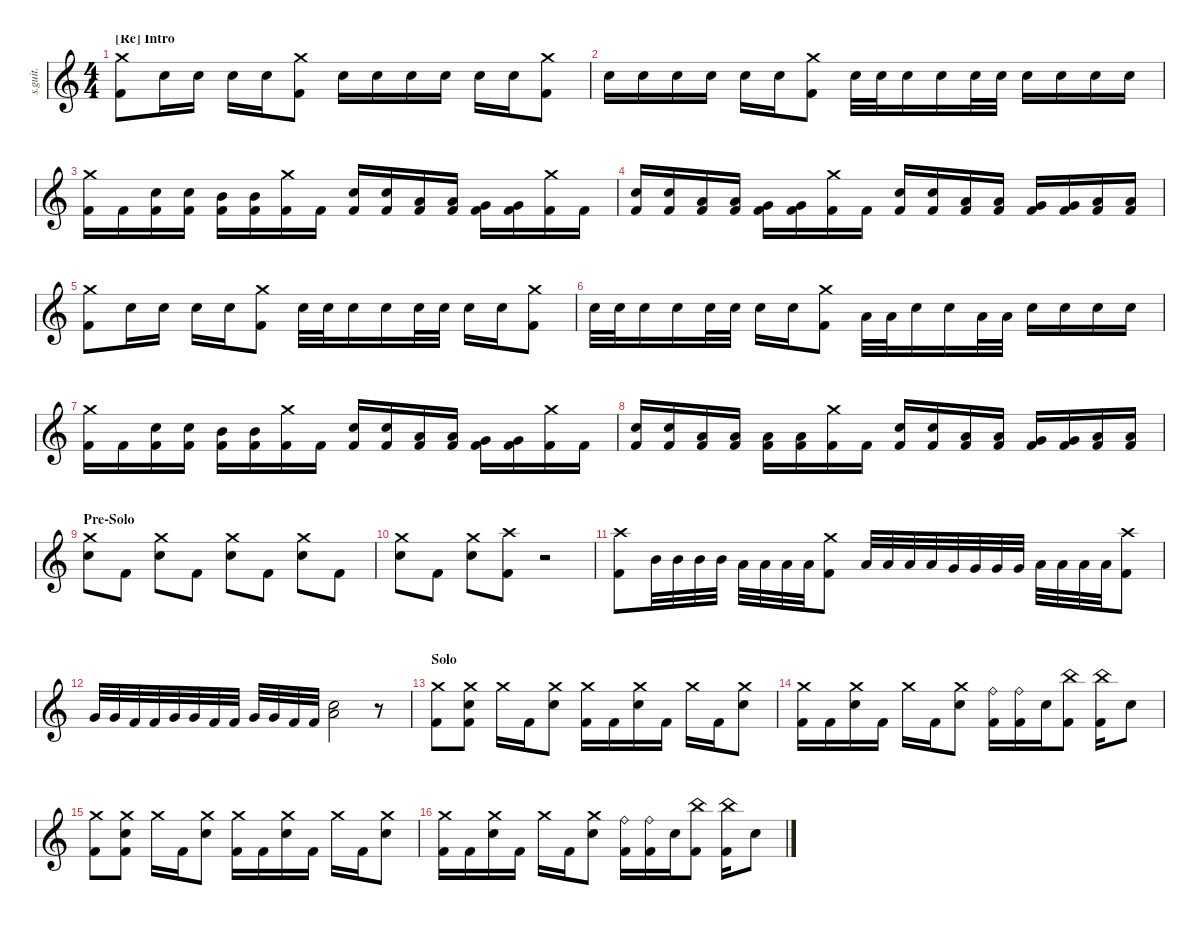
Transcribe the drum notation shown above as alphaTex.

\defaultSystemsLayout 4
\hideDynamics
\bracketExtendMode nobrackets
\track ("The Rev" "s.guit.") {instrument percussion}
\staff {score}
\articulation defaults
\ts (4 4)
\section ("Re" "Intro")
\tempo (125 hide)
\clef g2
\ks c
("Crash medium (hit)" "Kick (hit) 2").8{lyrics (0 "") lyrics (1 "") lyrics (2 "") lyrics (3 "") lyrics (4 "") dy f} "Electric Snare (hit)".16{lyrics (0 "") lyrics (1 "") lyrics (2 "") lyrics (3 "") lyrics (4 "")} "Electric Snare (hit)".16{lyrics (0 "") lyrics (1 "") lyrics (2 "") lyrics (3 "") lyrics (4 "")} "Electric Snare (hit)".16{lyrics (0 "") lyrics (1 "") lyrics (2 "") lyrics (3 "") lyrics (4 "")} "Electric Snare (hit)".16{lyrics (0 "") lyrics (1 "") lyrics (2 "") lyrics (3 "") lyrics (4 "")} ("Crash medium (hit)" "Kick (hit) 2").8{lyrics (0 "") lyrics (1 "") lyrics (2 "") lyrics (3 "") lyrics (4 "")} "Electric Snare (hit)".16{lyrics (0 "") lyrics (1 "") lyrics (2 "") lyrics (3 "") lyrics (4 "")} "Electric Snare (hit)".16{lyrics (0 "") lyrics (1 "") lyrics (2 "") lyrics (3 "") lyrics (4 "")} "Electric Snare (hit)".16{lyrics (0 "") lyrics (1 "") lyrics (2 "") lyrics (3 "") lyrics (4 "")} "Electric Snare (hit)".16{lyrics (0 "") lyrics (1 "") lyrics (2 "") lyrics (3 "") lyrics (4 "")} "Electric Snare (hit)".16{lyrics (0 "") lyrics (1 "") lyrics (2 "") lyrics (3 "") lyrics (4 "")} "Electric Snare (hit)".16{lyrics (0 "") lyrics (1 "") lyrics (2 "") lyrics (3 "") lyrics (4 "")} ("Crash medium (hit)" "Kick (hit) 2").8{lyrics (0 "") lyrics (1 "") lyrics (2 "") lyrics (3 "") lyrics (4 "")} |
"Electric Snare (hit)".16{lyrics (0 "") lyrics (1 "") lyrics (2 "") lyrics (3 "") lyrics (4 "")} "Electric Snare (hit)".16{lyrics (0 "") lyrics (1 "") lyrics (2 "") lyrics (3 "") lyrics (4 "")} "Electric Snare (hit)".16{lyrics (0 "") lyrics (1 "") lyrics (2 "") lyrics (3 "") lyrics (4 "")} "Electric Snare (hit)".16{lyrics (0 "") lyrics (1 "") lyrics (2 "") lyrics (3 "") lyrics (4 "")} "Electric Snare (hit)".16{lyrics (0 "") lyrics (1 "") lyrics (2 "") lyrics (3 "") lyrics (4 "")} "Electric Snare (hit)".16{lyrics (0 "") lyrics (1 "") lyrics (2 "") lyrics (3 "") lyrics (4 "")} ("Crash medium (hit)" "Kick (hit) 2").8{lyrics (0 "") lyrics (1 "") lyrics (2 "") lyrics (3 "") lyrics (4 "")} "Electric Snare (hit)".32{lyrics (0 "") lyrics (1 "") lyrics (2 "") lyrics (3 "") lyrics (4 "")} "Electric Snare (hit)".32{lyrics (0 "") lyrics (1 "") lyrics (2 "") lyrics (3 "") lyrics (4 "")} "Electric Snare (hit)".16{lyrics (0 "") lyrics (1 "") lyrics (2 "") lyrics (3 "") lyrics (4 "")} "Electric Snare (hit)".16{lyrics (0 "") lyrics (1 "") lyrics (2 "") lyrics (3 "") lyrics (4 "")} "Electric Snare (hit)".32{lyrics (0 "") lyrics (1 "") lyrics (2 "") lyrics (3 "") lyrics (4 "")} "Electric Snare (hit)".32{lyrics (0 "") lyrics (1 "") lyrics (2 "") lyrics (3 "") lyrics (4 "")} "Electric Snare (hit)".16{lyrics (0 "") lyrics (1 "") lyrics (2 "") lyrics (3 "") lyrics (4 "")} "Electric Snare (hit)".16{lyrics (0 "") lyrics (1 "") lyrics (2 "") lyrics (3 "") lyrics (4 "")} "Electric Snare (hit)".16{lyrics (0 "") lyrics (1 "") lyrics (2 "") lyrics (3 "") lyrics (4 "")} "Electric Snare (hit)".16{lyrics (0 "") lyrics (1 "") lyrics (2 "") lyrics (3 "") lyrics (4 "")} |
("Crash medium (hit)" "Kick (hit) 2").16{lyrics (0 "") lyrics (1 "") lyrics (2 "") lyrics (3 "") lyrics (4 "")} "Kick (hit) 2".16{lyrics (0 "") lyrics (1 "") lyrics (2 "") lyrics (3 "") lyrics (4 "") dy fff} ("Electric Snare (hit)" "Kick (hit) 2").16{lyrics (0 "") lyrics (1 "") lyrics (2 "") lyrics (3 "") lyrics (4 "")} ("Electric Snare (hit)" "Kick (hit) 2").16{lyrics (0 "") lyrics (1 "") lyrics (2 "") lyrics (3 "") lyrics (4 "")} ("Mid Tom (hit)" "Kick (hit) 2").16{lyrics (0 "") lyrics (1 "") lyrics (2 "") lyrics (3 "") lyrics (4 "")} ("Mid Tom (hit)" "Kick (hit) 2").16{lyrics (0 "") lyrics (1 "") lyrics (2 "") lyrics (3 "") lyrics (4 "")} ("Crash medium (hit)" "Kick (hit) 2").16{lyrics (0 "") lyrics (1 "") lyrics (2 "") lyrics (3 "") lyrics (4 "")} "Kick (hit) 2".16{lyrics (0 "") lyrics (1 "") lyrics (2 "") lyrics (3 "") lyrics (4 "")} ("Electric Snare (hit)" "Kick (hit) 2").16{lyrics (0 "") lyrics (1 "") lyrics (2 "") lyrics (3 "") lyrics (4 "")} ("Electric Snare (hit)" "Kick (hit) 2").16{lyrics (0 "") lyrics (1 "") lyrics (2 "") lyrics (3 "") lyrics (4 "")} ("Low Tom (hit)" "Kick (hit) 2").16{lyrics (0 "") lyrics (1 "") lyrics (2 "") lyrics (3 "") lyrics (4 "")} ("Low Tom (hit)" "Kick (hit) 2").16{lyrics (0 "") lyrics (1 "") lyrics (2 "") lyrics (3 "") lyrics (4 "")} ("Very Low Tom (hit)" "Kick (hit) 2").16{lyrics (0 "") lyrics (1 "") lyrics (2 "") lyrics (3 "") lyrics (4 "")} ("Very Low Tom (hit)" "Kick (hit) 2").16{lyrics (0 "") lyrics (1 "") lyrics (2 "") lyrics (3 "") lyrics (4 "")} ("Crash medium (hit)" "Kick (hit) 2").16{lyrics (0 "") lyrics (1 "") lyrics (2 "") lyrics (3 "") lyrics (4 "")} "Kick (hit) 2".16{lyrics (0 "") lyrics (1 "") lyrics (2 "") lyrics (3 "") lyrics (4 "")} |
("Electric Snare (hit)" "Kick (hit) 2").16{lyrics (0 "") lyrics (1 "") lyrics (2 "") lyrics (3 "") lyrics (4 "")} ("Electric Snare (hit)" "Kick (hit) 2").16{lyrics (0 "") lyrics (1 "") lyrics (2 "") lyrics (3 "") lyrics (4 "")} ("Low Tom (hit)" "Kick (hit) 2").16{lyrics (0 "") lyrics (1 "") lyrics (2 "") lyrics (3 "") lyrics (4 "")} ("Low Tom (hit)" "Kick (hit) 2").16{lyrics (0 "") lyrics (1 "") lyrics (2 "") lyrics (3 "") lyrics (4 "")} ("Very Low Tom (hit)" "Kick (hit) 2").16{lyrics (0 "") lyrics (1 "") lyrics (2 "") lyrics (3 "") lyrics (4 "")} ("Very Low Tom (hit)" "Kick (hit) 2").16{lyrics (0 "") lyrics (1 "") lyrics (2 "") lyrics (3 "") lyrics (4 "")} ("Crash medium (hit)" "Kick (hit) 2").16{lyrics (0 "") lyrics (1 "") lyrics (2 "") lyrics (3 "") lyrics (4 "")} "Kick (hit) 2".16{lyrics (0 "") lyrics (1 "") lyrics (2 "") lyrics (3 "") lyrics (4 "")} ("Electric Snare (hit)" "Kick (hit) 2").16{lyrics (0 "") lyrics (1 "") lyrics (2 "") lyrics (3 "") lyrics (4 "")} ("Electric Snare (hit)" "Kick (hit) 2").16{lyrics (0 "") lyrics (1 "") lyrics (2 "") lyrics (3 "") lyrics (4 "")} ("Low Tom (hit)" "Kick (hit) 2").16{lyrics (0 "") lyrics (1 "") lyrics (2 "") lyrics (3 "") lyrics (4 "")} ("Low Tom (hit)" "Kick (hit) 2").16{lyrics (0 "") lyrics (1 "") lyrics (2 "") lyrics (3 "") lyrics (4 "")} ("Very Low Tom (hit)" "Kick (hit) 2").16{lyrics (0 "") lyrics (1 "") lyrics (2 "") lyrics (3 "") lyrics (4 "")} ("Very Low Tom (hit)" "Kick (hit) 2").16{lyrics (0 "") lyrics (1 "") lyrics (2 "") lyrics (3 "") lyrics (4 "")} ("Low Floor Tom (hit)" "Kick (hit) 2").16{lyrics (0 "") lyrics (1 "") lyrics (2 "") lyrics (3 "") lyrics (4 "")} ("Low Floor Tom (hit)" "Kick (hit) 2").16{lyrics (0 "") lyrics (1 "") lyrics (2 "") lyrics (3 "") lyrics (4 "")} |
("Crash medium (hit)" "Kick (hit) 2").8{lyrics (0 "") lyrics (1 "") lyrics (2 "") lyrics (3 "") lyrics (4 "")} "Electric Snare (hit)".16{lyrics (0 "") lyrics (1 "") lyrics (2 "") lyrics (3 "") lyrics (4 "") dy f} "Electric Snare (hit)".16{lyrics (0 "") lyrics (1 "") lyrics (2 "") lyrics (3 "") lyrics (4 "")} "Electric Snare (hit)".16{lyrics (0 "") lyrics (1 "") lyrics (2 "") lyrics (3 "") lyrics (4 "")} "Electric Snare (hit)".16{lyrics (0 "") lyrics (1 "") lyrics (2 "") lyrics (3 "") lyrics (4 "")} ("Crash medium (hit)" "Kick (hit) 2").8{lyrics (0 "") lyrics (1 "") lyrics (2 "") lyrics (3 "") lyrics (4 "")} "Electric Snare (hit)".32{lyrics (0 "") lyrics (1 "") lyrics (2 "") lyrics (3 "") lyrics (4 "")} "Electric Snare (hit)".32{lyrics (0 "") lyrics (1 "") lyrics (2 "") lyrics (3 "") lyrics (4 "")} "Electric Snare (hit)".16{lyrics (0 "") lyrics (1 "") lyrics (2 "") lyrics (3 "") lyrics (4 "")} "Electric Snare (hit)".16{lyrics (0 "") lyrics (1 "") lyrics (2 "") lyrics (3 "") lyrics (4 "")} "Electric Snare (hit)".32{lyrics (0 "") lyrics (1 "") lyrics (2 "") lyrics (3 "") lyrics (4 "")} "Electric Snare (hit)".32{lyrics (0 "") lyrics (1 "") lyrics (2 "") lyrics (3 "") lyrics (4 "")} "Electric Snare (hit)".16{lyrics (0 "") lyrics (1 "") lyrics (2 "") lyrics (3 "") lyrics (4 "")} "Electric Snare (hit)".16{lyrics (0 "") lyrics (1 "") lyrics (2 "") lyrics (3 "") lyrics (4 "")} ("Crash medium (hit)" "Kick (hit) 2").8{lyrics (0 "") lyrics (1 "") lyrics (2 "") lyrics (3 "") lyrics (4 "")} |
"Electric Snare (hit)".32{lyrics (0 "") lyrics (1 "") lyrics (2 "") lyrics (3 "") lyrics (4 "")} "Electric Snare (hit)".32{lyrics (0 "") lyrics (1 "") lyrics (2 "") lyrics (3 "") lyrics (4 "")} "Electric Snare (hit)".16{lyrics (0 "") lyrics (1 "") lyrics (2 "") lyrics (3 "") lyrics (4 "")} "Electric Snare (hit)".16{lyrics (0 "") lyrics (1 "") lyrics (2 "") lyrics (3 "") lyrics (4 "")} "Electric Snare (hit)".32{lyrics (0 "") lyrics (1 "") lyrics (2 "") lyrics (3 "") lyrics (4 "")} "Electric Snare (hit)".32{lyrics (0 "") lyrics (1 "") lyrics (2 "") lyrics (3 "") lyrics (4 "")} "Electric Snare (hit)".16{lyrics (0 "") lyrics (1 "") lyrics (2 "") lyrics (3 "") lyrics (4 "")} "Electric Snare (hit)".16{lyrics (0 "") lyrics (1 "") lyrics (2 "") lyrics (3 "") lyrics (4 "")} ("Crash medium (hit)" "Kick (hit) 2").8{lyrics (0 "") lyrics (1 "") lyrics (2 "") lyrics (3 "") lyrics (4 "")} "Low Tom (hit)".32{lyrics (0 "") lyrics (1 "") lyrics (2 "") lyrics (3 "") lyrics (4 "") dy fff} "Low Tom (hit)".32{lyrics (0 "") lyrics (1 "") lyrics (2 "") lyrics (3 "") lyrics (4 "")} "Electric Snare (hit)".16{lyrics (0 "") lyrics (1 "") lyrics (2 "") lyrics (3 "") lyrics (4 "") dy ff} "Electric Snare (hit)".16{lyrics (0 "") lyrics (1 "") lyrics (2 "") lyrics (3 "") lyrics (4 "")} "Low Tom (hit)".32{lyrics (0 "") lyrics (1 "") lyrics (2 "") lyrics (3 "") lyrics (4 "") dy fff} "Low Tom (hit)".32{lyrics (0 "") lyrics (1 "") lyrics (2 "") lyrics (3 "") lyrics (4 "")} "Electric Snare (hit)".16{lyrics (0 "") lyrics (1 "") lyrics (2 "") lyrics (3 "") lyrics (4 "") dy ff} "Electric Snare (hit)".16{lyrics (0 "") lyrics (1 "") lyrics (2 "") lyrics (3 "") lyrics (4 "")} "Electric Snare (hit)".16{lyrics (0 "") lyrics (1 "") lyrics (2 "") lyrics (3 "") lyrics (4 "")} "Electric Snare (hit)".16{lyrics (0 "") lyrics (1 "") lyrics (2 "") lyrics (3 "") lyrics (4 "")} |
("Crash medium (hit)" "Kick (hit) 2").16{lyrics (0 "") lyrics (1 "") lyrics (2 "") lyrics (3 "") lyrics (4 "") dy f} "Kick (hit) 2".16{lyrics (0 "") lyrics (1 "") lyrics (2 "") lyrics (3 "") lyrics (4 "") dy fff} ("Electric Snare (hit)" "Kick (hit) 2").16{lyrics (0 "") lyrics (1 "") lyrics (2 "") lyrics (3 "") lyrics (4 "")} ("Electric Snare (hit)" "Kick (hit) 2").16{lyrics (0 "") lyrics (1 "") lyrics (2 "") lyrics (3 "") lyrics (4 "")} ("Mid Tom (hit)" "Kick (hit) 2").16{lyrics (0 "") lyrics (1 "") lyrics (2 "") lyrics (3 "") lyrics (4 "")} ("Mid Tom (hit)" "Kick (hit) 2").16{lyrics (0 "") lyrics (1 "") lyrics (2 "") lyrics (3 "") lyrics (4 "")} ("Crash medium (hit)" "Kick (hit) 2").16{lyrics (0 "") lyrics (1 "") lyrics (2 "") lyrics (3 "") lyrics (4 "")} "Kick (hit) 2".16{lyrics (0 "") lyrics (1 "") lyrics (2 "") lyrics (3 "") lyrics (4 "")} ("Electric Snare (hit)" "Kick (hit) 2").16{lyrics (0 "") lyrics (1 "") lyrics (2 "") lyrics (3 "") lyrics (4 "")} ("Electric Snare (hit)" "Kick (hit) 2").16{lyrics (0 "") lyrics (1 "") lyrics (2 "") lyrics (3 "") lyrics (4 "")} ("Low Tom (hit)" "Kick (hit) 2").16{lyrics (0 "") lyrics (1 "") lyrics (2 "") lyrics (3 "") lyrics (4 "")} ("Low Tom (hit)" "Kick (hit) 2").16{lyrics (0 "") lyrics (1 "") lyrics (2 "") lyrics (3 "") lyrics (4 "")} ("Very Low Tom (hit)" "Kick (hit) 2").16{lyrics (0 "") lyrics (1 "") lyrics (2 "") lyrics (3 "") lyrics (4 "")} ("Very Low Tom (hit)" "Kick (hit) 2").16{lyrics (0 "") lyrics (1 "") lyrics (2 "") lyrics (3 "") lyrics (4 "")} ("Crash medium (hit)" "Kick (hit) 2").16{lyrics (0 "") lyrics (1 "") lyrics (2 "") lyrics (3 "") lyrics (4 "")} "Kick (hit) 2".16{lyrics (0 "") lyrics (1 "") lyrics (2 "") lyrics (3 "") lyrics (4 "")} |
("Electric Snare (hit)" "Kick (hit) 2").16{lyrics (0 "") lyrics (1 "") lyrics (2 "") lyrics (3 "") lyrics (4 "")} ("Electric Snare (hit)" "Kick (hit) 2").16{lyrics (0 "") lyrics (1 "") lyrics (2 "") lyrics (3 "") lyrics (4 "")} ("Low Tom (hit)" "Kick (hit) 2").16{lyrics (0 "") lyrics (1 "") lyrics (2 "") lyrics (3 "") lyrics (4 "")} ("Low Tom (hit)" "Kick (hit) 2").16{lyrics (0 "") lyrics (1 "") lyrics (2 "") lyrics (3 "") lyrics (4 "")} ("Low Tom (hit)" "Kick (hit) 2").16{lyrics (0 "") lyrics (1 "") lyrics (2 "") lyrics (3 "") lyrics (4 "")} ("Low Tom (hit)" "Kick (hit) 2").16{lyrics (0 "") lyrics (1 "") lyrics (2 "") lyrics (3 "") lyrics (4 "")} ("Crash medium (hit)" "Kick (hit) 2").16{lyrics (0 "") lyrics (1 "") lyrics (2 "") lyrics (3 "") lyrics (4 "")} "Kick (hit) 2".16{lyrics (0 "") lyrics (1 "") lyrics (2 "") lyrics (3 "") lyrics (4 "")} ("Electric Snare (hit)" "Kick (hit) 2").16{lyrics (0 "") lyrics (1 "") lyrics (2 "") lyrics (3 "") lyrics (4 "")} ("Electric Snare (hit)" "Kick (hit) 2").16{lyrics (0 "") lyrics (1 "") lyrics (2 "") lyrics (3 "") lyrics (4 "")} ("Low Tom (hit)" "Kick (hit) 2").16{lyrics (0 "") lyrics (1 "") lyrics (2 "") lyrics (3 "") lyrics (4 "")} ("Low Tom (hit)" "Kick (hit) 2").16{lyrics (0 "") lyrics (1 "") lyrics (2 "") lyrics (3 "") lyrics (4 "")} ("Very Low Tom (hit)" "Kick (hit) 2").16{lyrics (0 "") lyrics (1 "") lyrics (2 "") lyrics (3 "") lyrics (4 "")} ("Very Low Tom (hit)" "Kick (hit) 2").16{lyrics (0 "") lyrics (1 "") lyrics (2 "") lyrics (3 "") lyrics (4 "")} ("Low Floor Tom (hit)" "Kick (hit) 2").16{lyrics (0 "") lyrics (1 "") lyrics (2 "") lyrics (3 "") lyrics (4 "")} ("Low Floor Tom (hit)" "Kick (hit) 2").16{lyrics (0 "") lyrics (1 "") lyrics (2 "") lyrics (3 "") lyrics (4 "")} |
\section ("" "Pre-Solo")
("Crash medium (hit)" "Electric Snare (hit)").8{lyrics (0 "") lyrics (1 "") lyrics (2 "") lyrics (3 "") lyrics (4 "") dy f} "Kick (hit) 2".8{lyrics (0 "") lyrics (1 "") lyrics (2 "") lyrics (3 "") lyrics (4 "") dy fff} ("Crash medium (hit)" "Electric Snare (hit)").8{lyrics (0 "") lyrics (1 "") lyrics (2 "") lyrics (3 "") lyrics (4 "") dy f} "Kick (hit) 2".8{lyrics (0 "") lyrics (1 "") lyrics (2 "") lyrics (3 "") lyrics (4 "") dy fff} ("Crash medium (hit)" "Electric Snare (hit)").8{lyrics (0 "") lyrics (1 "") lyrics (2 "") lyrics (3 "") lyrics (4 "") dy f} "Kick (hit) 2".8{lyrics (0 "") lyrics (1 "") lyrics (2 "") lyrics (3 "") lyrics (4 "") dy fff} ("Crash medium (hit)" "Electric Snare (hit)").8{lyrics (0 "") lyrics (1 "") lyrics (2 "") lyrics (3 "") lyrics (4 "") dy f} "Kick (hit) 2".8{lyrics (0 "") lyrics (1 "") lyrics (2 "") lyrics (3 "") lyrics (4 "") dy fff} |
("Crash medium (hit)" "Electric Snare (hit)").8{lyrics (0 "") lyrics (1 "") lyrics (2 "") lyrics (3 "") lyrics (4 "") dy f} "Kick (hit) 2".8{lyrics (0 "") lyrics (1 "") lyrics (2 "") lyrics (3 "") lyrics (4 "") dy fff} ("Crash medium (hit)" "Electric Snare (hit)").8{lyrics (0 "") lyrics (1 "") lyrics (2 "") lyrics (3 "") lyrics (4 "") dy f} ("Crash high (hit)" "Kick (hit) 2").8{lyrics (0 "") lyrics (1 "") lyrics (2 "") lyrics (3 "") lyrics (4 "")} r.2 |
("Crash high (hit)" "Kick (hit) 2").8{lyrics (0 "") lyrics (1 "") lyrics (2 "") lyrics (3 "") lyrics (4 "")} "Mid Tom (hit)".32{lyrics (0 "") lyrics (1 "") lyrics (2 "") lyrics (3 "") lyrics (4 "") dy fff} "Mid Tom (hit)".32{lyrics (0 "") lyrics (1 "") lyrics (2 "") lyrics (3 "") lyrics (4 "")} "Mid Tom (hit)".32{lyrics (0 "") lyrics (1 "") lyrics (2 "") lyrics (3 "") lyrics (4 "")} "Mid Tom (hit)".32{lyrics (0 "") lyrics (1 "") lyrics (2 "") lyrics (3 "") lyrics (4 "")} "Low Tom (hit)".32{lyrics (0 "") lyrics (1 "") lyrics (2 "") lyrics (3 "") lyrics (4 "")} "Low Tom (hit)".32{lyrics (0 "") lyrics (1 "") lyrics (2 "") lyrics (3 "") lyrics (4 "")} "Low Tom (hit)".32{lyrics (0 "") lyrics (1 "") lyrics (2 "") lyrics (3 "") lyrics (4 "")} "Low Tom (hit)".32{lyrics (0 "") lyrics (1 "") lyrics (2 "") lyrics (3 "") lyrics (4 "")} ("Crash medium (hit)" "Kick (hit) 2").8{lyrics (0 "") lyrics (1 "") lyrics (2 "") lyrics (3 "") lyrics (4 "")} "Low Tom (hit)".32{lyrics (0 "") lyrics (1 "") lyrics (2 "") lyrics (3 "") lyrics (4 "")} "Low Tom (hit)".32{lyrics (0 "") lyrics (1 "") lyrics (2 "") lyrics (3 "") lyrics (4 "")} "Low Tom (hit)".32{lyrics (0 "") lyrics (1 "") lyrics (2 "") lyrics (3 "") lyrics (4 "")} "Low Tom (hit)".32{lyrics (0 "") lyrics (1 "") lyrics (2 "") lyrics (3 "") lyrics (4 "")} "Very Low Tom (hit)".32{lyrics (0 "") lyrics (1 "") lyrics (2 "") lyrics (3 "") lyrics (4 "") dy ff} "Very Low Tom (hit)".32{lyrics (0 "") lyrics (1 "") lyrics (2 "") lyrics (3 "") lyrics (4 "")} "Very Low Tom (hit)".32{lyrics (0 "") lyrics (1 "") lyrics (2 "") lyrics (3 "") lyrics (4 "")} "Very Low Tom (hit)".32{lyrics (0 "") lyrics (1 "") lyrics (2 "") lyrics (3 "") lyrics (4 "")} "Low Floor Tom (hit)".32{lyrics (0 "") lyrics (1 "") lyrics (2 "") lyrics (3 "") lyrics (4 "") dy f} "Low Floor Tom (hit)".32{lyrics (0 "") lyrics (1 "") lyrics (2 "") lyrics (3 "") lyrics (4 "")} "Low Floor Tom (hit)".32{lyrics (0 "") lyrics (1 "") lyrics (2 "") lyrics (3 "") lyrics (4 "")} "Low Floor Tom (hit)".32{lyrics (0 "") lyrics (1 "") lyrics (2 "") lyrics (3 "") lyrics (4 "")} ("Crash high (hit)" "Kick (hit) 2").8{lyrics (0 "") lyrics (1 "") lyrics (2 "") lyrics (3 "") lyrics (4 "")} |
"Very Low Tom (hit)".32{lyrics (0 "") lyrics (1 "") lyrics (2 "") lyrics (3 "") lyrics (4 "") dy ff} "Very Low Tom (hit)".32{lyrics (0 "") lyrics (1 "") lyrics (2 "") lyrics (3 "") lyrics (4 "")} "Kick (hit) 2".32{lyrics (0 "") lyrics (1 "") lyrics (2 "") lyrics (3 "") lyrics (4 "") dy fff} "Kick (hit) 2".32{lyrics (0 "") lyrics (1 "") lyrics (2 "") lyrics (3 "") lyrics (4 "")} "Very Low Tom (hit)".32{lyrics (0 "") lyrics (1 "") lyrics (2 "") lyrics (3 "") lyrics (4 "") dy ff} "Very Low Tom (hit)".32{lyrics (0 "") lyrics (1 "") lyrics (2 "") lyrics (3 "") lyrics (4 "")} "Kick (hit) 2".32{lyrics (0 "") lyrics (1 "") lyrics (2 "") lyrics (3 "") lyrics (4 "") dy fff} "Kick (hit) 2".32{lyrics (0 "") lyrics (1 "") lyrics (2 "") lyrics (3 "") lyrics (4 "")} "Very Low Tom (hit)".32{lyrics (0 "") lyrics (1 "") lyrics (2 "") lyrics (3 "") lyrics (4 "") dy ff} "Very Low Tom (hit)".32{lyrics (0 "") lyrics (1 "") lyrics (2 "") lyrics (3 "") lyrics (4 "")} "Kick (hit) 2".32{lyrics (0 "") lyrics (1 "") lyrics (2 "") lyrics (3 "") lyrics (4 "") dy fff} "Kick (hit) 2".32{lyrics (0 "") lyrics (1 "") lyrics (2 "") lyrics (3 "") lyrics (4 "")} ("Electric Snare (hit)" "Low Floor Tom (hit)").2{lyrics (0 "") lyrics (1 "") lyrics (2 "") lyrics (3 "") lyrics (4 "") dy f} r.8 |
\section ("" "Solo")
("Crash medium (hit)" "Kick (hit) 2").8{lyrics (0 "") lyrics (1 "") lyrics (2 "") lyrics (3 "") lyrics (4 "") dy mp} ("Crash medium (hit)" "Electric Snare (hit)" "Kick (hit) 2").8{lyrics (0 "") lyrics (1 "") lyrics (2 "") lyrics (3 "") lyrics (4 "")} "Crash medium (hit)".16{lyrics (0 "") lyrics (1 "") lyrics (2 "") lyrics (3 "") lyrics (4 "")} "Kick (hit) 2".16{lyrics (0 "") lyrics (1 "") lyrics (2 "") lyrics (3 "") lyrics (4 "") dy fff} ("Crash medium (hit)" "Electric Snare (hit)").8{lyrics (0 "") lyrics (1 "") lyrics (2 "") lyrics (3 "") lyrics (4 "") dy f} ("Crash medium (hit)" "Kick (hit) 2").16{lyrics (0 "") lyrics (1 "") lyrics (2 "") lyrics (3 "") lyrics (4 "") dy mp} "Kick (hit) 2".16{lyrics (0 "") lyrics (1 "") lyrics (2 "") lyrics (3 "") lyrics (4 "") dy fff} ("Crash medium (hit)" "Electric Snare (hit)").16{lyrics (0 "") lyrics (1 "") lyrics (2 "") lyrics (3 "") lyrics (4 "") dy f} "Kick (hit) 2".16{lyrics (0 "") lyrics (1 "") lyrics (2 "") lyrics (3 "") lyrics (4 "") dy fff} "Crash medium (hit)".16{lyrics (0 "") lyrics (1 "") lyrics (2 "") lyrics (3 "") lyrics (4 "") dy mp} "Kick (hit) 2".16{lyrics (0 "") lyrics (1 "") lyrics (2 "") lyrics (3 "") lyrics (4 "") dy fff} ("Crash medium (hit)" "Electric Snare (hit)").8{lyrics (0 "") lyrics (1 "") lyrics (2 "") lyrics (3 "") lyrics (4 "") dy f} |
("Crash medium (hit)" "Kick (hit) 2").16{lyrics (0 "") lyrics (1 "") lyrics (2 "") lyrics (3 "") lyrics (4 "") dy mp} "Kick (hit) 2".16{lyrics (0 "") lyrics (1 "") lyrics (2 "") lyrics (3 "") lyrics (4 "") dy fff} ("Crash medium (hit)" "Electric Snare (hit)").16{lyrics (0 "") lyrics (1 "") lyrics (2 "") lyrics (3 "") lyrics (4 "") dy f} "Kick (hit) 2".16{lyrics (0 "") lyrics (1 "") lyrics (2 "") lyrics (3 "") lyrics (4 "") dy fff} "Crash medium (hit)".16{lyrics (0 "") lyrics (1 "") lyrics (2 "") lyrics (3 "") lyrics (4 "") dy mp} "Kick (hit) 2".16{lyrics (0 "") lyrics (1 "") lyrics (2 "") lyrics (3 "") lyrics (4 "") dy fff} ("Crash medium (hit)" "Electric Snare (hit)").8{lyrics (0 "") lyrics (1 "") lyrics (2 "") lyrics (3 "") lyrics (4 "") dy f} ("Ride (bell)" "Kick (hit) 2").16{lyrics (0 "") lyrics (1 "") lyrics (2 "") lyrics (3 "") lyrics (4 "")} ("Ride (bell)" "Kick (hit) 2").16{lyrics (0 "") lyrics (1 "") lyrics (2 "") lyrics (3 "") lyrics (4 "")} "Electric Snare (hit)".16{lyrics (0 "") lyrics (1 "") lyrics (2 "") lyrics (3 "") lyrics (4 "")} ("China (hit)" "Kick (hit) 2").8{lyrics (0 "") lyrics (1 "") lyrics (2 "") lyrics (3 "") lyrics (4 "") dy fff} ("China (hit)" "Kick (hit) 2").16{lyrics (0 "") lyrics (1 "") lyrics (2 "") lyrics (3 "") lyrics (4 "")} "Electric Snare (hit)".8{lyrics (0 "") lyrics (1 "") lyrics (2 "") lyrics (3 "") lyrics (4 "") dy f} |
("Crash medium (hit)" "Kick (hit) 2").8{lyrics (0 "") lyrics (1 "") lyrics (2 "") lyrics (3 "") lyrics (4 "") dy mp} ("Crash medium (hit)" "Electric Snare (hit)" "Kick (hit) 2").8{lyrics (0 "") lyrics (1 "") lyrics (2 "") lyrics (3 "") lyrics (4 "")} "Crash medium (hit)".16{lyrics (0 "") lyrics (1 "") lyrics (2 "") lyrics (3 "") lyrics (4 "")} "Kick (hit) 2".16{lyrics (0 "") lyrics (1 "") lyrics (2 "") lyrics (3 "") lyrics (4 "") dy fff} ("Crash medium (hit)" "Electric Snare (hit)").8{lyrics (0 "") lyrics (1 "") lyrics (2 "") lyrics (3 "") lyrics (4 "") dy f} ("Crash medium (hit)" "Kick (hit) 2").16{lyrics (0 "") lyrics (1 "") lyrics (2 "") lyrics (3 "") lyrics (4 "") dy mp} "Kick (hit) 2".16{lyrics (0 "") lyrics (1 "") lyrics (2 "") lyrics (3 "") lyrics (4 "") dy fff} ("Crash medium (hit)" "Electric Snare (hit)").16{lyrics (0 "") lyrics (1 "") lyrics (2 "") lyrics (3 "") lyrics (4 "") dy f} "Kick (hit) 2".16{lyrics (0 "") lyrics (1 "") lyrics (2 "") lyrics (3 "") lyrics (4 "") dy fff} "Crash medium (hit)".16{lyrics (0 "") lyrics (1 "") lyrics (2 "") lyrics (3 "") lyrics (4 "") dy mp} "Kick (hit) 2".16{lyrics (0 "") lyrics (1 "") lyrics (2 "") lyrics (3 "") lyrics (4 "") dy fff} ("Crash medium (hit)" "Electric Snare (hit)").8{lyrics (0 "") lyrics (1 "") lyrics (2 "") lyrics (3 "") lyrics (4 "") dy f} |
("Crash medium (hit)" "Kick (hit) 2").16{lyrics (0 "") lyrics (1 "") lyrics (2 "") lyrics (3 "") lyrics (4 "") dy mp} "Kick (hit) 2".16{lyrics (0 "") lyrics (1 "") lyrics (2 "") lyrics (3 "") lyrics (4 "") dy fff} ("Crash medium (hit)" "Electric Snare (hit)").16{lyrics (0 "") lyrics (1 "") lyrics (2 "") lyrics (3 "") lyrics (4 "") dy f} "Kick (hit) 2".16{lyrics (0 "") lyrics (1 "") lyrics (2 "") lyrics (3 "") lyrics (4 "") dy fff} "Crash medium (hit)".16{lyrics (0 "") lyrics (1 "") lyrics (2 "") lyrics (3 "") lyrics (4 "") dy mp} "Kick (hit) 2".16{lyrics (0 "") lyrics (1 "") lyrics (2 "") lyrics (3 "") lyrics (4 "") dy fff} ("Crash medium (hit)" "Electric Snare (hit)").8{lyrics (0 "") lyrics (1 "") lyrics (2 "") lyrics (3 "") lyrics (4 "") dy f} ("Ride (bell)" "Kick (hit) 2").16{lyrics (0 "") lyrics (1 "") lyrics (2 "") lyrics (3 "") lyrics (4 "")} ("Ride (bell)" "Kick (hit) 2").16{lyrics (0 "") lyrics (1 "") lyrics (2 "") lyrics (3 "") lyrics (4 "")} "Electric Snare (hit)".16{lyrics (0 "") lyrics (1 "") lyrics (2 "") lyrics (3 "") lyrics (4 "")} ("China (hit)" "Kick (hit) 2").8{lyrics (0 "") lyrics (1 "") lyrics (2 "") lyrics (3 "") lyrics (4 "") dy fff} ("China (hit)" "Kick (hit) 2").16{lyrics (0 "") lyrics (1 "") lyrics (2 "") lyrics (3 "") lyrics (4 "")} "Electric Snare (hit)".8{lyrics (0 "") lyrics (1 "") lyrics (2 "") lyrics (3 "") lyrics (4 "") dy f}
